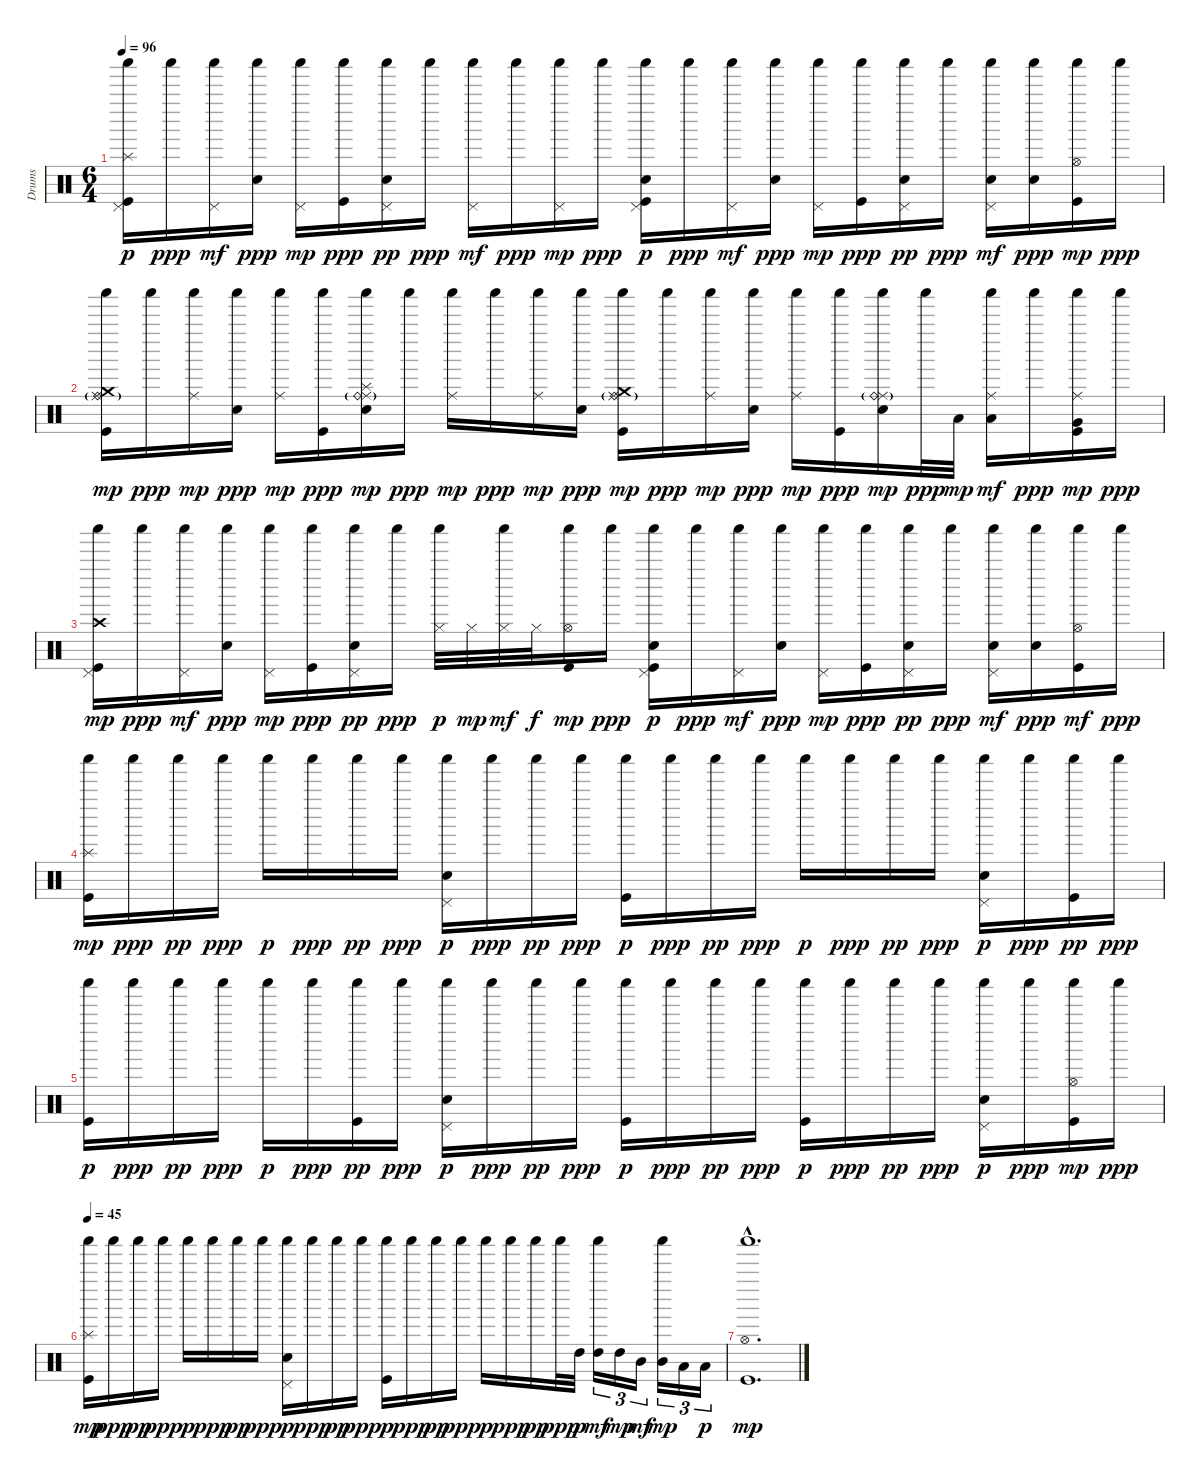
\track ("Drums" "Drums") {instrument percussion}
\staff {score}
\articulation defaults
\ts (6 4)
\tempo 96
\clef neutral
\ks c
("Shaker (hit)" "Pedal Hi-Hat (hit)" "Splash (hit)" "Kick (hit)").16{dy p} "Shaker (hit)".16{dy ppp} ("Shaker (hit)" "Pedal Hi-Hat (hit)").16{dy mf} ("Shaker (hit)" "Hand Clap (hit)").16{dy ppp} ("Shaker (hit)" "Pedal Hi-Hat (hit)").16{dy mp} ("Shaker (hit)" "Kick (hit)").16{dy ppp} ("Shaker (hit)" "Pedal Hi-Hat (hit)" "Hand Clap (hit)").16{dy pp} "Shaker (hit)".16{dy ppp} ("Shaker (hit)" "Pedal Hi-Hat (hit)").16{dy mf} "Shaker (hit)".16{dy ppp} ("Shaker (hit)" "Pedal Hi-Hat (hit)").16{dy mp} "Shaker (hit)".16{dy ppp} ("Shaker (hit)" "Pedal Hi-Hat (hit)" "Hand Clap (hit)" "Kick (hit)").16{dy p} "Shaker (hit)".16{dy ppp} ("Shaker (hit)" "Pedal Hi-Hat (hit)").16{dy mf} ("Shaker (hit)" "Hand Clap (hit)").16{dy ppp} ("Shaker (hit)" "Pedal Hi-Hat (hit)").16{dy mp} ("Shaker (hit)" "Kick (hit)").16{dy ppp} ("Shaker (hit)" "Pedal Hi-Hat (hit)" "Hand Clap (hit)").16{dy pp} "Shaker (hit)".16{dy ppp} ("Shaker (hit)" "Pedal Hi-Hat (hit)" "Hand Clap (hit)").16{dy mf} ("Shaker (hit)" "Hand Clap (hit)").16{dy ppp} ("Shaker (hit)" "Hi-Hat (open)" "Kick (hit)").16{dy mp} "Shaker (hit)".16{dy ppp} |
("Shaker (hit)" "Ride (middle)" "Ride (bell)"{g} "Crash medium (hit)" "Kick (hit)").16{dy mp} "Shaker (hit)".16{dy ppp} ("Shaker (hit)" "Ride (middle)").16{dy mp} ("Shaker (hit)" "Hand Clap (hit)").16{dy ppp} ("Shaker (hit)" "Ride (middle)").16{dy mp} ("Shaker (hit)" "Kick (hit)").16{dy ppp} ("Shaker (hit)" "Ride (middle)" "Ride (bell)"{g} "Splash (hit)" "Hand Clap (hit)").16{dy mp} "Shaker (hit)".16{dy ppp} ("Shaker (hit)" "Ride (middle)").16{dy mp} "Shaker (hit)".16{dy ppp} ("Shaker (hit)" "Ride (middle)").16{dy mp} ("Shaker (hit)" "Hand Clap (hit)").16{dy ppp} ("Shaker (hit)" "Ride (middle)" "Ride (bell)"{g} "Crash medium (hit)" "Kick (hit)").16{dy mp} "Shaker (hit)".16{dy ppp} ("Shaker (hit)" "Ride (middle)").16{dy mp} ("Shaker (hit)" "Hand Clap (hit)").16{dy ppp} ("Shaker (hit)" "Ride (middle)").16{dy mp} ("Shaker (hit)" "Kick (hit)").16{dy ppp} ("Shaker (hit)" "Ride (middle)" "Ride (bell)"{g} "Hand Clap (hit)").16{dy mp} "Shaker (hit)".32{dy ppp} "Low Tom (hit)".32{dy mp} ("Shaker (hit)" "Ride (middle)" "Low Tom (hit)").16{dy mf} "Shaker (hit)".16{dy ppp} ("Shaker (hit)" "Ride (middle)" "Very Low Tom (hit)" "Kick (hit)").16{dy mp} "Shaker (hit)".16{dy ppp} |
("Shaker (hit)" "Pedal Hi-Hat (hit)" "Crash high (hit)" "Kick (hit)").16{dy mp} "Shaker (hit)".16{dy ppp} ("Shaker (hit)" "Pedal Hi-Hat (hit)").16{dy mf} ("Shaker (hit)" "Hand Clap (hit)").16{dy ppp} ("Shaker (hit)" "Pedal Hi-Hat (hit)").16{dy mp} ("Shaker (hit)" "Kick (hit)").16{dy ppp} ("Shaker (hit)" "Pedal Hi-Hat (hit)" "Hand Clap (hit)").16{dy pp} "Shaker (hit)".16{dy ppp} ("Shaker (hit)" "Hi-Hat (closed)").32{dy p} "Hi-Hat (closed)".32{dy mp} ("Shaker (hit)" "Hi-Hat (closed)").32{dy mf} "Hi-Hat (closed)".32{dy f} ("Shaker (hit)" "Hi-Hat (open)" "Kick (hit)").16{dy mp} "Shaker (hit)".16{dy ppp} ("Shaker (hit)" "Pedal Hi-Hat (hit)" "Hand Clap (hit)" "Kick (hit)").16{dy p} "Shaker (hit)".16{dy ppp} ("Shaker (hit)" "Pedal Hi-Hat (hit)").16{dy mf} ("Shaker (hit)" "Hand Clap (hit)").16{dy ppp} ("Shaker (hit)" "Pedal Hi-Hat (hit)").16{dy mp} ("Shaker (hit)" "Kick (hit)").16{dy ppp} ("Shaker (hit)" "Pedal Hi-Hat (hit)" "Hand Clap (hit)").16{dy pp} "Shaker (hit)".16{dy ppp} ("Shaker (hit)" "Pedal Hi-Hat (hit)" "Hand Clap (hit)").16{dy mf} ("Shaker (hit)" "Hand Clap (hit)").16{dy ppp} ("Shaker (hit)" "Hi-Hat (open)" "Kick (hit)").16{dy mf} "Shaker (hit)".16{dy ppp} |
("Shaker (hit)" "Splash (hit)" "Kick (hit)").16{dy mp} "Shaker (hit)".16{dy ppp} "Shaker (hit)".16{dy pp} "Shaker (hit)".16{dy ppp} "Shaker (hit)".16{dy p} "Shaker (hit)".16{dy ppp} "Shaker (hit)".16{dy pp} "Shaker (hit)".16{dy ppp} ("Shaker (hit)" "Pedal Hi-Hat (hit)" "Hand Clap (hit)").16{dy p} "Shaker (hit)".16{dy ppp} "Shaker (hit)".16{dy pp} "Shaker (hit)".16{dy ppp} ("Shaker (hit)" "Kick (hit)").16{dy p} "Shaker (hit)".16{dy ppp} "Shaker (hit)".16{dy pp} "Shaker (hit)".16{dy ppp} "Shaker (hit)".16{dy p} "Shaker (hit)".16{dy ppp} "Shaker (hit)".16{dy pp} "Shaker (hit)".16{dy ppp} ("Shaker (hit)" "Pedal Hi-Hat (hit)" "Hand Clap (hit)").16{dy p} "Shaker (hit)".16{dy ppp} ("Shaker (hit)" "Kick (hit)").16{dy pp} "Shaker (hit)".16{dy ppp} |
("Shaker (hit)" "Kick (hit)").16{dy p} "Shaker (hit)".16{dy ppp} "Shaker (hit)".16{dy pp} "Shaker (hit)".16{dy ppp} "Shaker (hit)".16{dy p} "Shaker (hit)".16{dy ppp} ("Shaker (hit)" "Kick (hit)").16{dy pp} "Shaker (hit)".16{dy ppp} ("Shaker (hit)" "Pedal Hi-Hat (hit)" "Hand Clap (hit)").16{dy p} "Shaker (hit)".16{dy ppp} "Shaker (hit)".16{dy pp} "Shaker (hit)".16{dy ppp} ("Shaker (hit)" "Kick (hit)").16{dy p} "Shaker (hit)".16{dy ppp} "Shaker (hit)".16{dy pp} "Shaker (hit)".16{dy ppp} ("Shaker (hit)" "Kick (hit)").16{dy p} "Shaker (hit)".16{dy ppp} "Shaker (hit)".16{dy pp} "Shaker (hit)".16{dy ppp} ("Shaker (hit)" "Pedal Hi-Hat (hit)" "Hand Clap (hit)").16{dy p} "Shaker (hit)".16{dy ppp} ("Shaker (hit)" "Hi-Hat (open)" "Kick (hit)").16{dy mp} "Shaker (hit)".16{dy ppp} |
\tempo 45
("Shaker (hit)" "Splash (hit)" "Kick (hit)").16{dy mp} "Shaker (hit)".16{dy ppp} "Shaker (hit)".16{dy pp} "Shaker (hit)".16{dy ppp} "Shaker (hit)".16{dy p} "Shaker (hit)".16{dy ppp} "Shaker (hit)".16{dy pp} "Shaker (hit)".16{dy ppp} ("Shaker (hit)" "Pedal Hi-Hat (hit)" "Hand Clap (hit)").16{dy p} "Shaker (hit)".16{dy ppp} "Shaker (hit)".16{dy pp} "Shaker (hit)".16{dy ppp} ("Shaker (hit)" "Kick (hit)").16{dy p} "Shaker (hit)".16{dy ppp} "Shaker (hit)".16{dy pp} "Shaker (hit)".16{dy ppp} "Shaker (hit)".16{dy p} "Shaker (hit)".16{dy ppp} "Shaker (hit)".16{dy pp} "Shaker (hit)".32{dy ppp} "High Tom (hit)".32{dy p} ("Shaker (hit)" "High Tom (hit)").16{tu (3 2) dy mf} "High Tom (hit)".16{tu (3 2) dy mp} "Mid Tom (hit)".16{tu (3 2) dy mf} ("Shaker (hit)" "Mid Tom (hit)").16{tu (3 2) dy mp} "Low Tom (hit)".16{tu (3 2)} "Low Tom (hit)".16{tu (3 2) dy p} |
("Hi-Hat (open)"{hac} "Shaker (hit)"{hac} "Kick (hit)"{hac}).1{d dy mp}
